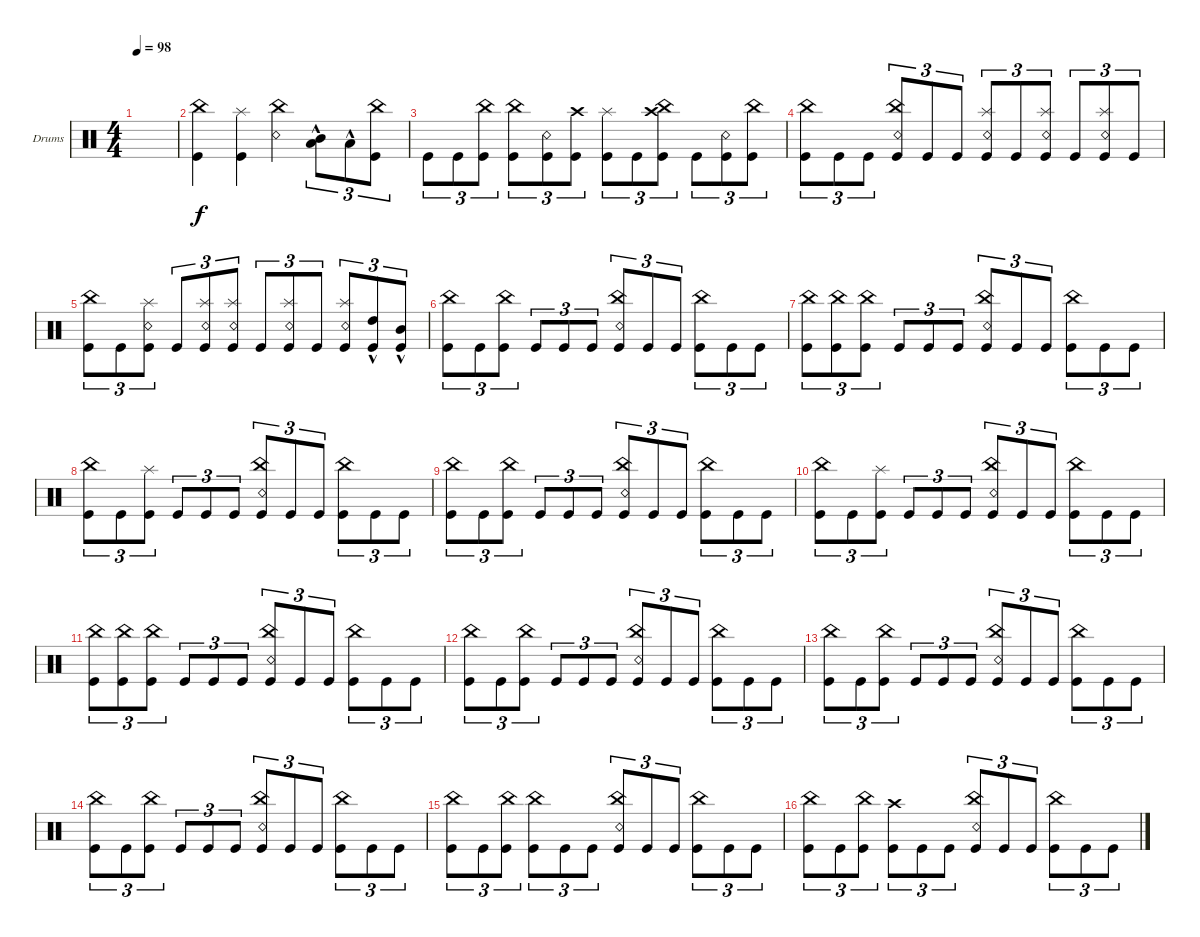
\defaultSystemsLayout 4
\bracketExtendMode groupsimilarinstruments
\multiBarRest
\firstSystemTrackNameOrientation horizontal
\otherSystemsTrackNameOrientation horizontal
\track ("Drumkit" "Drums") {instrument percussion}
\staff {score}
\articulation defaults
\ts (4 4)
\tempo 98
\clef neutral
\ks c
|
("Kick (hit)" "China (hit)").4 ("Kick (hit)" "Splash (hit)").4 ("Snare (rim shot)" "China (hit)").4 ("Mid Tom (hit)" "Low Tom (hit)"{hac}).8{tu (3 2)} "Low Tom (hit)"{hac}.8{tu (3 2)} ("Kick (hit)" "China (hit)").8{tu (3 2)} |
"Kick (hit)".8{tu (3 2)} "Kick (hit)".8{tu (3 2)} ("Kick (hit)" "China (hit)").8{tu (3 2)} ("Kick (hit)" "China (hit)").8{tu (3 2)} ("Kick (hit)" "Snare (rim shot)").8{tu (3 2)} ("Kick (hit)" "Crash high (hit)").8{tu (3 2)} ("Kick (hit)" "Splash (hit)").8{tu (3 2)} "Kick (hit)".8{tu (3 2)} ("Kick (hit)" "China (hit)" "Crash high (hit)").8{tu (3 2)} "Kick (hit)".8{tu (3 2)} ("Kick (hit)" "Snare (rim shot)").8{tu (3 2)} ("Kick (hit)" "China (hit)").8{tu (3 2)} |
("Kick (hit)" "China (hit)").8{tu (3 2)} "Kick (hit)".8{tu (3 2)} "Kick (hit)".8{tu (3 2)} ("Kick (hit)" "China (hit)" "Snare (rim shot)").8{tu (3 2)} "Kick (hit)".8{tu (3 2)} "Kick (hit)".8{tu (3 2)} ("Kick (hit)" "Snare (rim shot)" "Splash (hit)").8{tu (3 2)} "Kick (hit)".8{tu (3 2)} ("Kick (hit)" "Snare (rim shot)" "Splash (hit)").8{tu (3 2)} "Kick (hit)".8{tu (3 2)} ("Kick (hit)" "Snare (rim shot)" "Splash (hit)").8{tu (3 2)} "Kick (hit)".8{tu (3 2)} |
("Kick (hit)" "China (hit)").8{tu (3 2)} "Kick (hit)".8{tu (3 2)} ("Kick (hit)" "Snare (rim shot)" "Splash (hit)").8{tu (3 2)} "Kick (hit)".8{tu (3 2)} ("Kick (hit)" "Snare (rim shot)" "Splash (hit)").8{tu (3 2)} ("Kick (hit)" "Snare (rim shot)" "Splash (hit)").8{tu (3 2)} "Kick (hit)".8{tu (3 2)} ("Kick (hit)" "Snare (rim shot)" "Splash (hit)").8{tu (3 2)} "Kick (hit)".8{tu (3 2)} ("Kick (hit)" "Snare (rim shot)" "Splash (hit)").8{tu (3 2)} ("Kick (hit)"{hac} "High Tom (hit)"{hac}).8{tu (3 2)} ("Kick (hit)"{hac} "Mid Tom (hit)"{hac}).8{tu (3 2)} |
("Kick (hit)" "China (hit)").8{tu (3 2)} "Kick (hit)".8{tu (3 2)} ("Kick (hit)" "China (hit)").8{tu (3 2)} "Kick (hit)".8{tu (3 2)} "Kick (hit)".8{tu (3 2)} "Kick (hit)".8{tu (3 2)} ("Snare (rim shot)" "Kick (hit)" "China (hit)").8{tu (3 2)} "Kick (hit)".8{tu (3 2)} "Kick (hit)".8{tu (3 2)} ("Kick (hit)" "China (hit)").8{tu (3 2)} "Kick (hit)".8{tu (3 2)} "Kick (hit)".8{tu (3 2)} |
("Kick (hit)" "China (hit)").8{tu (3 2)} ("Kick (hit)" "China (hit)").8{tu (3 2)} ("Kick (hit)" "China (hit)").8{tu (3 2)} "Kick (hit)".8{tu (3 2)} "Kick (hit)".8{tu (3 2)} "Kick (hit)".8{tu (3 2)} ("Snare (rim shot)" "Kick (hit)" "China (hit)").8{tu (3 2)} "Kick (hit)".8{tu (3 2)} "Kick (hit)".8{tu (3 2)} ("Kick (hit)" "China (hit)").8{tu (3 2)} "Kick (hit)".8{tu (3 2)} "Kick (hit)".8{tu (3 2)} |
("Kick (hit)" "China (hit)").8{tu (3 2)} "Kick (hit)".8{tu (3 2)} ("Kick (hit)" "Splash (hit)").8{tu (3 2)} "Kick (hit)".8{tu (3 2)} "Kick (hit)".8{tu (3 2)} "Kick (hit)".8{tu (3 2)} ("Snare (rim shot)" "Kick (hit)" "China (hit)").8{tu (3 2)} "Kick (hit)".8{tu (3 2)} "Kick (hit)".8{tu (3 2)} ("Kick (hit)" "China (hit)").8{tu (3 2)} "Kick (hit)".8{tu (3 2)} "Kick (hit)".8{tu (3 2)} |
("Kick (hit)" "China (hit)").8{tu (3 2)} "Kick (hit)".8{tu (3 2)} ("Kick (hit)" "China (hit)").8{tu (3 2)} "Kick (hit)".8{tu (3 2)} "Kick (hit)".8{tu (3 2)} "Kick (hit)".8{tu (3 2)} ("Snare (rim shot)" "Kick (hit)" "China (hit)").8{tu (3 2)} "Kick (hit)".8{tu (3 2)} "Kick (hit)".8{tu (3 2)} ("Kick (hit)" "China (hit)").8{tu (3 2)} "Kick (hit)".8{tu (3 2)} "Kick (hit)".8{tu (3 2)} |
("Kick (hit)" "China (hit)").8{tu (3 2)} "Kick (hit)".8{tu (3 2)} ("Kick (hit)" "Splash (hit)").8{tu (3 2)} "Kick (hit)".8{tu (3 2)} "Kick (hit)".8{tu (3 2)} "Kick (hit)".8{tu (3 2)} ("Snare (rim shot)" "Kick (hit)" "China (hit)").8{tu (3 2)} "Kick (hit)".8{tu (3 2)} "Kick (hit)".8{tu (3 2)} ("Kick (hit)" "China (hit)").8{tu (3 2)} "Kick (hit)".8{tu (3 2)} "Kick (hit)".8{tu (3 2)} |
("Kick (hit)" "China (hit)").8{tu (3 2)} ("Kick (hit)" "China (hit)").8{tu (3 2)} ("Kick (hit)" "China (hit)").8{tu (3 2)} "Kick (hit)".8{tu (3 2)} "Kick (hit)".8{tu (3 2)} "Kick (hit)".8{tu (3 2)} ("Snare (rim shot)" "Kick (hit)" "China (hit)").8{tu (3 2)} "Kick (hit)".8{tu (3 2)} "Kick (hit)".8{tu (3 2)} ("Kick (hit)" "China (hit)").8{tu (3 2)} "Kick (hit)".8{tu (3 2)} "Kick (hit)".8{tu (3 2)} |
("Kick (hit)" "China (hit)").8{tu (3 2)} "Kick (hit)".8{tu (3 2)} ("Kick (hit)" "China (hit)").8{tu (3 2)} "Kick (hit)".8{tu (3 2)} "Kick (hit)".8{tu (3 2)} "Kick (hit)".8{tu (3 2)} ("Snare (rim shot)" "Kick (hit)" "China (hit)").8{tu (3 2)} "Kick (hit)".8{tu (3 2)} "Kick (hit)".8{tu (3 2)} ("Kick (hit)" "China (hit)").8{tu (3 2)} "Kick (hit)".8{tu (3 2)} "Kick (hit)".8{tu (3 2)} |
("Kick (hit)" "China (hit)").8{tu (3 2)} "Kick (hit)".8{tu (3 2)} ("Kick (hit)" "China (hit)").8{tu (3 2)} "Kick (hit)".8{tu (3 2)} "Kick (hit)".8{tu (3 2)} "Kick (hit)".8{tu (3 2)} ("Snare (rim shot)" "Kick (hit)" "China (hit)").8{tu (3 2)} "Kick (hit)".8{tu (3 2)} "Kick (hit)".8{tu (3 2)} ("Kick (hit)" "China (hit)").8{tu (3 2)} "Kick (hit)".8{tu (3 2)} "Kick (hit)".8{tu (3 2)} |
("Kick (hit)" "China (hit)").8{tu (3 2)} "Kick (hit)".8{tu (3 2)} ("Kick (hit)" "China (hit)").8{tu (3 2)} "Kick (hit)".8{tu (3 2)} "Kick (hit)".8{tu (3 2)} "Kick (hit)".8{tu (3 2)} ("Snare (rim shot)" "Kick (hit)" "China (hit)").8{tu (3 2)} "Kick (hit)".8{tu (3 2)} "Kick (hit)".8{tu (3 2)} ("Kick (hit)" "China (hit)").8{tu (3 2)} "Kick (hit)".8{tu (3 2)} "Kick (hit)".8{tu (3 2)} |
("Kick (hit)" "China (hit)").8{tu (3 2)} "Kick (hit)".8{tu (3 2)} ("Kick (hit)" "China (hit)").8{tu (3 2)} ("Kick (hit)" "China (hit)").8{tu (3 2)} "Kick (hit)".8{tu (3 2)} "Kick (hit)".8{tu (3 2)} ("Snare (rim shot)" "Kick (hit)" "China (hit)").8{tu (3 2)} "Kick (hit)".8{tu (3 2)} "Kick (hit)".8{tu (3 2)} ("Kick (hit)" "China (hit)").8{tu (3 2)} "Kick (hit)".8{tu (3 2)} "Kick (hit)".8{tu (3 2)} |
("Kick (hit)" "China (hit)").8{tu (3 2)} "Kick (hit)".8{tu (3 2)} ("Kick (hit)" "China (hit)").8{tu (3 2)} ("Kick (hit)" "Crash high (hit)").8{tu (3 2)} "Kick (hit)".8{tu (3 2)} "Kick (hit)".8{tu (3 2)} ("Snare (rim shot)" "Kick (hit)" "China (hit)").8{tu (3 2)} "Kick (hit)".8{tu (3 2)} "Kick (hit)".8{tu (3 2)} ("Kick (hit)" "China (hit)").8{tu (3 2)} "Kick (hit)".8{tu (3 2)} "Kick (hit)".8{tu (3 2)}
